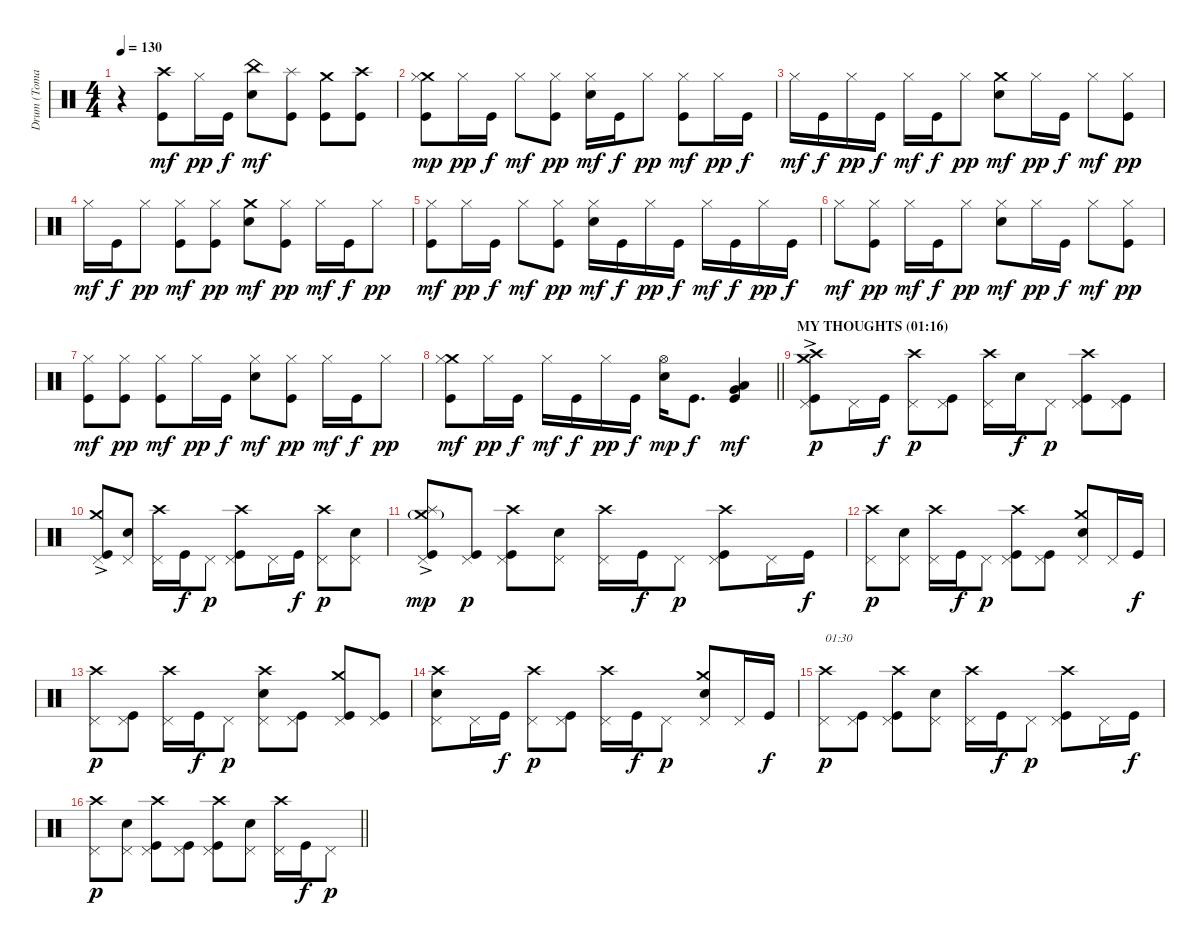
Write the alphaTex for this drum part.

\track ("Drum (Tomas Haake)" "Drum (Toma") {instrument percussion}
\staff {score}
\articulation defaults
\ts (4 4)
\tempo 130
\clef neutral
\ks c
r.4{dy mf} ("Crash high (hit)" "Kick (hit)").8 "Hi-Hat (closed)".16{dy pp} "Kick (hit)".16{dy f} ("China (hit)" "Electric Snare (hit)").8{dy mf} ("Splash (hit)" "Kick (hit)").8 ("Crash medium (hit)" "Kick (hit)").8 ("Crash high (hit)" "Kick (hit)").8 |
("Crash medium (hit)" "Hi-Hat (closed)" "Kick (hit)").8{dy mp} "Hi-Hat (closed)".16{dy pp} "Kick (hit)".16{dy f} "Hi-Hat (closed)".8{dy mf} ("Hi-Hat (closed)" "Kick (hit)").8{dy pp} ("Hi-Hat (closed)" "Electric Snare (hit)").16{dy mf} "Kick (hit)".16{dy f} "Hi-Hat (closed)".8{dy pp} ("Hi-Hat (closed)" "Kick (hit)").8{dy mf} "Hi-Hat (closed)".16{dy pp} "Kick (hit)".16{dy f} |
"Hi-Hat (closed)".16{dy mf} "Kick (hit)".16{dy f} "Hi-Hat (closed)".16{dy pp} "Kick (hit)".16{dy f} "Hi-Hat (closed)".16{dy mf} "Kick (hit)".16{dy f} "Hi-Hat (closed)".8{dy pp} ("Crash medium (hit)" "Electric Snare (hit)").8{dy mf} "Hi-Hat (closed)".16{dy pp} "Kick (hit)".16{dy f} "Hi-Hat (closed)".8{dy mf} ("Hi-Hat (closed)" "Kick (hit)").8{dy pp} |
"Hi-Hat (closed)".16{dy mf} "Kick (hit)".16{dy f} "Hi-Hat (closed)".8{dy pp} ("Hi-Hat (closed)" "Kick (hit)").8{dy mf} ("Hi-Hat (closed)" "Kick (hit)").8{dy pp} ("Crash medium (hit)" "Electric Snare (hit)").8{dy mf} ("Hi-Hat (closed)" "Kick (hit)").8{dy pp} "Hi-Hat (closed)".16{dy mf} "Kick (hit)".16{dy f} "Hi-Hat (closed)".8{dy pp} |
("Hi-Hat (closed)" "Kick (hit)").8{dy mf} "Hi-Hat (closed)".16{dy pp} "Kick (hit)".16{dy f} "Hi-Hat (closed)".8{dy mf} ("Hi-Hat (closed)" "Kick (hit)").8{dy pp} ("Hi-Hat (closed)" "Electric Snare (hit)").16{dy mf} "Kick (hit)".16{dy f} "Hi-Hat (closed)".16{dy pp} "Kick (hit)".16{dy f} "Hi-Hat (closed)".16{dy mf} "Kick (hit)".16{dy f} "Hi-Hat (closed)".16{dy pp} "Kick (hit)".16{dy f} |
"Hi-Hat (closed)".8{dy mf} ("Hi-Hat (closed)" "Kick (hit)").8{dy pp} "Hi-Hat (closed)".16{dy mf} "Kick (hit)".16{dy f} "Hi-Hat (closed)".8{dy pp} ("Hi-Hat (closed)" "Electric Snare (hit)").8{dy mf} "Hi-Hat (closed)".16{dy pp} "Kick (hit)".16{dy f} "Hi-Hat (closed)".8{dy mf} ("Hi-Hat (closed)" "Kick (hit)").8{dy pp} |
("Hi-Hat (closed)" "Kick (hit)").8{dy mf} ("Hi-Hat (closed)" "Kick (hit)").8{dy pp} ("Hi-Hat (closed)" "Kick (hit)").8{dy mf} "Hi-Hat (closed)".16{dy pp} "Kick (hit)".16{dy f} ("Hi-Hat (closed)" "Electric Snare (hit)").8{dy mf} ("Hi-Hat (closed)" "Kick (hit)").8{dy pp} "Hi-Hat (closed)".16{dy mf} "Kick (hit)".16{dy f} "Hi-Hat (closed)".8{dy pp} |
\barLineRight lightlight
("Crash medium (hit)" "Hi-Hat (closed)" "Kick (hit)").8{dy mf} "Hi-Hat (closed)".16{dy pp} "Kick (hit)".16{dy f} "Hi-Hat (closed)".16{dy mf} "Kick (hit)".16{dy f} "Hi-Hat (closed)".16{dy pp} "Kick (hit)".16{dy f} ("Hi-Hat (open)" "Electric Snare (hit)").16{dy mp} "Kick (hit)".8{d dy f} ("Low Floor Tom (hit)" "Very Low Tom (hit)" "Kick (hit)").4{dy mf} |
\section ("" "MY THOUGHTS (01:16)")
("Crash high (hit)" "Pedal Hi-Hat (hit)" "Crash medium (hit)"{ac} "Kick (hit)").8{dy p} "Pedal Hi-Hat (hit)".16 "Kick (hit)".16{dy f} ("Crash high (hit)" "Pedal Hi-Hat (hit)").8{dy p} ("Pedal Hi-Hat (hit)" "Kick (hit)").8 ("Crash high (hit)" "Pedal Hi-Hat (hit)").16 "Electric Snare (hit)".16{dy f} "Pedal Hi-Hat (hit)".8{dy p} ("Crash high (hit)" "Pedal Hi-Hat (hit)" "Kick (hit)").8 ("Pedal Hi-Hat (hit)" "Kick (hit)").8 |
("Crash medium (hit)"{ac} "Pedal Hi-Hat (hit)" "Kick (hit)").8 ("Pedal Hi-Hat (hit)" "Electric Snare (hit)").8 ("Crash high (hit)" "Pedal Hi-Hat (hit)").16 "Kick (hit)".16{dy f} "Pedal Hi-Hat (hit)".8{dy p} ("Crash high (hit)" "Pedal Hi-Hat (hit)" "Kick (hit)").8 "Pedal Hi-Hat (hit)".16 "Kick (hit)".16{dy f} ("Crash high (hit)" "Pedal Hi-Hat (hit)").8{dy p} ("Pedal Hi-Hat (hit)" "Electric Snare (hit)").8 |
("Splash (hit)"{ac} "Pedal Hi-Hat (hit)" "Crash medium (hit)"{g} "Kick (hit)").8{dy mp} ("Pedal Hi-Hat (hit)" "Kick (hit)").8{dy p} ("Crash high (hit)" "Pedal Hi-Hat (hit)" "Kick (hit)").8 ("Pedal Hi-Hat (hit)" "Electric Snare (hit)").8 ("Crash high (hit)" "Pedal Hi-Hat (hit)").16 "Kick (hit)".16{dy f} "Pedal Hi-Hat (hit)".8{dy p} ("Crash high (hit)" "Pedal Hi-Hat (hit)" "Kick (hit)").8 "Pedal Hi-Hat (hit)".16 "Kick (hit)".16{dy f} |
("Crash high (hit)" "Pedal Hi-Hat (hit)").8{dy p} ("Pedal Hi-Hat (hit)" "Electric Snare (hit)").8 ("Crash high (hit)" "Pedal Hi-Hat (hit)").16 "Kick (hit)".16{dy f} "Pedal Hi-Hat (hit)".8{dy p} ("Crash high (hit)" "Pedal Hi-Hat (hit)" "Kick (hit)").8 ("Pedal Hi-Hat (hit)" "Kick (hit)").8 ("Crash medium (hit)" "Pedal Hi-Hat (hit)" "Electric Snare (hit)").8 "Pedal Hi-Hat (hit)".16 "Kick (hit)".16{dy f} |
("Crash high (hit)" "Pedal Hi-Hat (hit)").8{dy p} ("Pedal Hi-Hat (hit)" "Kick (hit)").8 ("Crash high (hit)" "Pedal Hi-Hat (hit)").16 "Kick (hit)".16{dy f} "Pedal Hi-Hat (hit)".8{dy p} ("Crash high (hit)" "Pedal Hi-Hat (hit)" "Electric Snare (hit)").8 ("Pedal Hi-Hat (hit)" "Kick (hit)").8 ("Crash medium (hit)" "Pedal Hi-Hat (hit)" "Kick (hit)").8 ("Pedal Hi-Hat (hit)" "Kick (hit)").8 |
("Crash high (hit)" "Pedal Hi-Hat (hit)" "Electric Snare (hit)").8 "Pedal Hi-Hat (hit)".16 "Kick (hit)".16{dy f} ("Crash high (hit)" "Pedal Hi-Hat (hit)").8{dy p} ("Pedal Hi-Hat (hit)" "Kick (hit)").8 ("Crash high (hit)" "Pedal Hi-Hat (hit)").16 "Kick (hit)".16{dy f} "Pedal Hi-Hat (hit)".8{dy p} ("Crash medium (hit)" "Pedal Hi-Hat (hit)" "Electric Snare (hit)").8 "Pedal Hi-Hat (hit)".16 "Kick (hit)".16{dy f} |
("Crash high (hit)" "Pedal Hi-Hat (hit)").8{txt "01:30" dy p} ("Pedal Hi-Hat (hit)" "Kick (hit)").8 ("Crash high (hit)" "Pedal Hi-Hat (hit)" "Kick (hit)").8 ("Pedal Hi-Hat (hit)" "Electric Snare (hit)").8 ("Crash high (hit)" "Pedal Hi-Hat (hit)").16 "Kick (hit)".16{dy f} "Pedal Hi-Hat (hit)".8{dy p} ("Crash high (hit)" "Pedal Hi-Hat (hit)" "Kick (hit)").8 "Pedal Hi-Hat (hit)".16 "Kick (hit)".16{dy f} |
\barLineRight lightlight
("Crash high (hit)" "Pedal Hi-Hat (hit)").8{dy p} ("Pedal Hi-Hat (hit)" "Electric Snare (hit)").8 ("Crash high (hit)" "Pedal Hi-Hat (hit)" "Kick (hit)").8 ("Pedal Hi-Hat (hit)" "Kick (hit)").8 ("Crash high (hit)" "Pedal Hi-Hat (hit)" "Kick (hit)").8 ("Pedal Hi-Hat (hit)" "Electric Snare (hit)").8 ("Crash high (hit)" "Pedal Hi-Hat (hit)").16 "Kick (hit)".16{dy f} "Pedal Hi-Hat (hit)".8{dy p}
